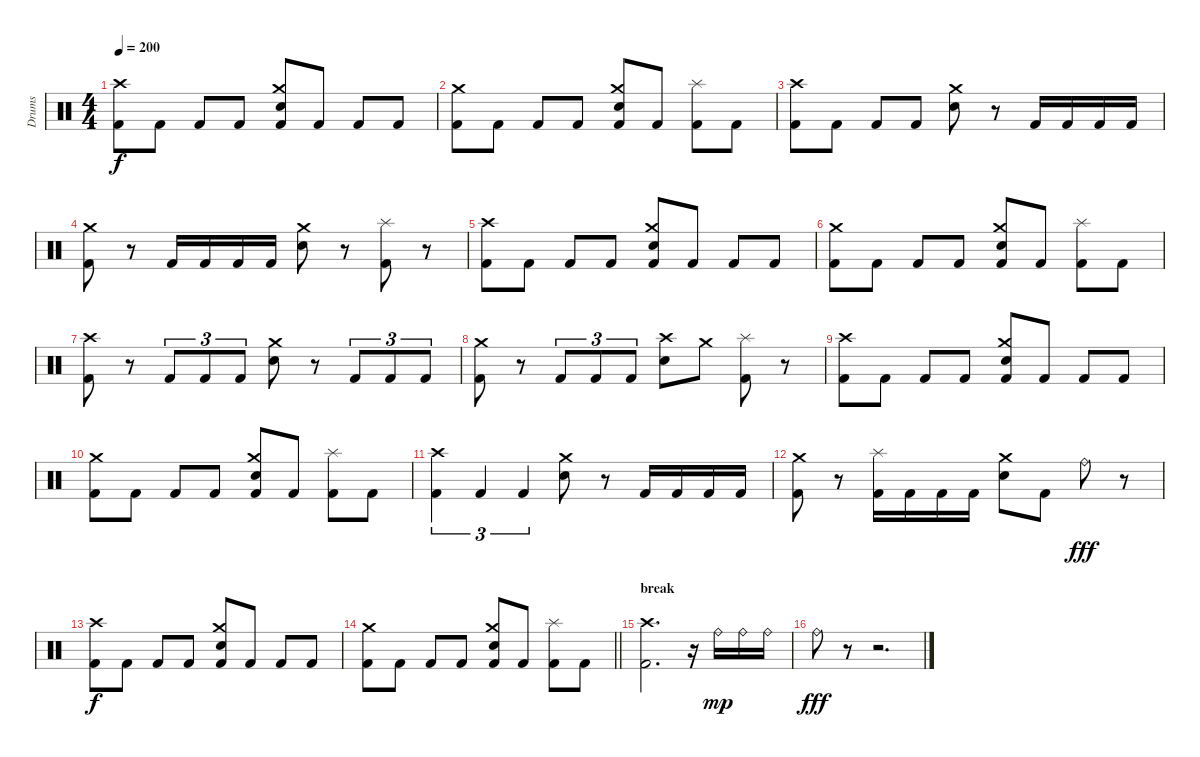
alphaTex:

\track ("Drums" "Drums") {instrument percussion}
\staff {score}
\articulation defaults
\ts (4 4)
\tempo 200
\clef neutral
\ks c
("Crash high (hit)" "Kick (hit) 2").8{dy f} "Kick (hit) 2".8 "Kick (hit) 2".8 "Kick (hit) 2".8 ("Crash medium (hit)" "Electric Snare (hit)" "Kick (hit) 2").8 "Kick (hit) 2".8 "Kick (hit) 2".8 "Kick (hit) 2".8 |
("Crash medium (hit)" "Kick (hit) 2").8 "Kick (hit) 2".8 "Kick (hit) 2".8 "Kick (hit) 2".8 ("Crash medium (hit)" "Electric Snare (hit)" "Kick (hit) 2").8 "Kick (hit) 2".8 ("Splash (hit)" "Kick (hit) 2").8 "Kick (hit) 2".8 |
("Crash high (hit)" "Kick (hit) 2").8 "Kick (hit) 2".8 "Kick (hit) 2".8 "Kick (hit) 2".8 ("Crash medium (hit)" "Electric Snare (hit)").8 r.8 "Kick (hit) 2".16 "Kick (hit) 2".16 "Kick (hit) 2".16 "Kick (hit) 2".16 |
("Crash medium (hit)" "Kick (hit) 2").8 r.8 "Kick (hit) 2".16 "Kick (hit) 2".16 "Kick (hit) 2".16 "Kick (hit) 2".16 ("Crash medium (hit)" "Electric Snare (hit)").8 r.8 ("Splash (hit)" "Kick (hit) 2").8 r.8 |
("Crash high (hit)" "Kick (hit) 2").8 "Kick (hit) 2".8 "Kick (hit) 2".8 "Kick (hit) 2".8 ("Crash medium (hit)" "Electric Snare (hit)" "Kick (hit) 2").8 "Kick (hit) 2".8 "Kick (hit) 2".8 "Kick (hit) 2".8 |
("Crash medium (hit)" "Kick (hit) 2").8 "Kick (hit) 2".8 "Kick (hit) 2".8 "Kick (hit) 2".8 ("Crash medium (hit)" "Electric Snare (hit)" "Kick (hit) 2").8 "Kick (hit) 2".8 ("Splash (hit)" "Kick (hit) 2").8 "Kick (hit) 2".8 |
("Crash high (hit)" "Kick (hit) 2").8 r.8 "Kick (hit) 2".8{tu (3 2)} "Kick (hit) 2".8{tu (3 2)} "Kick (hit) 2".8{tu (3 2)} ("Crash medium (hit)" "Electric Snare (hit)").8 r.8 "Kick (hit) 2".8{tu (3 2)} "Kick (hit) 2".8{tu (3 2)} "Kick (hit) 2".8{tu (3 2)} |
("Crash medium (hit)" "Kick (hit) 2").8 r.8 "Kick (hit) 2".8{tu (3 2)} "Kick (hit) 2".8{tu (3 2)} "Kick (hit) 2".8{tu (3 2)} ("Crash high (hit)" "Electric Snare (hit)").8 "Crash medium (hit)".8 ("Splash (hit)" "Kick (hit) 2").8 r.8 |
("Crash high (hit)" "Kick (hit) 2").8 "Kick (hit) 2".8 "Kick (hit) 2".8 "Kick (hit) 2".8 ("Crash medium (hit)" "Electric Snare (hit)" "Kick (hit) 2").8 "Kick (hit) 2".8 "Kick (hit) 2".8 "Kick (hit) 2".8 |
("Crash medium (hit)" "Kick (hit) 2").8 "Kick (hit) 2".8 "Kick (hit) 2".8 "Kick (hit) 2".8 ("Crash medium (hit)" "Electric Snare (hit)" "Kick (hit) 2").8 "Kick (hit) 2".8 ("Splash (hit)" "Kick (hit) 2").8 "Kick (hit) 2".8 |
("Crash high (hit)" "Kick (hit) 2").4{tu (3 2)} "Kick (hit) 2".4{tu (3 2)} "Kick (hit) 2".4{tu (3 2)} ("Crash medium (hit)" "Electric Snare (hit)").8 r.8 "Kick (hit) 2".16 "Kick (hit) 2".16 "Kick (hit) 2".16 "Kick (hit) 2".16 |
("Crash medium (hit)" "Kick (hit) 2").8 r.8 ("Splash (hit)" "Kick (hit) 2").16 "Kick (hit) 2".16 "Kick (hit) 2".16 "Kick (hit) 2".16 ("Crash medium (hit)" "Electric Snare (hit)").8 "Kick (hit) 2".8 "Ride (bell)".8{dy fff} r.8 |
("Crash high (hit)" "Kick (hit) 2").8{dy f} "Kick (hit) 2".8 "Kick (hit) 2".8 "Kick (hit) 2".8 ("Crash medium (hit)" "Electric Snare (hit)" "Kick (hit) 2").8 "Kick (hit) 2".8 "Kick (hit) 2".8 "Kick (hit) 2".8 |
\barLineRight lightlight
("Crash medium (hit)" "Kick (hit) 2").8 "Kick (hit) 2".8 "Kick (hit) 2".8 "Kick (hit) 2".8 ("Crash medium (hit)" "Electric Snare (hit)" "Kick (hit) 2").8 "Kick (hit) 2".8 ("Splash (hit)" "Kick (hit) 2").8 "Kick (hit) 2".8 |
\section ("" "break")
("Crash high (hit)" "Kick (hit) 2").2{d} r.16 "Ride (bell)".16{dy mp} "Ride (bell)".16 "Ride (bell)".16 |
"Ride (bell)".8{dy fff} r.8 r.2{d}
